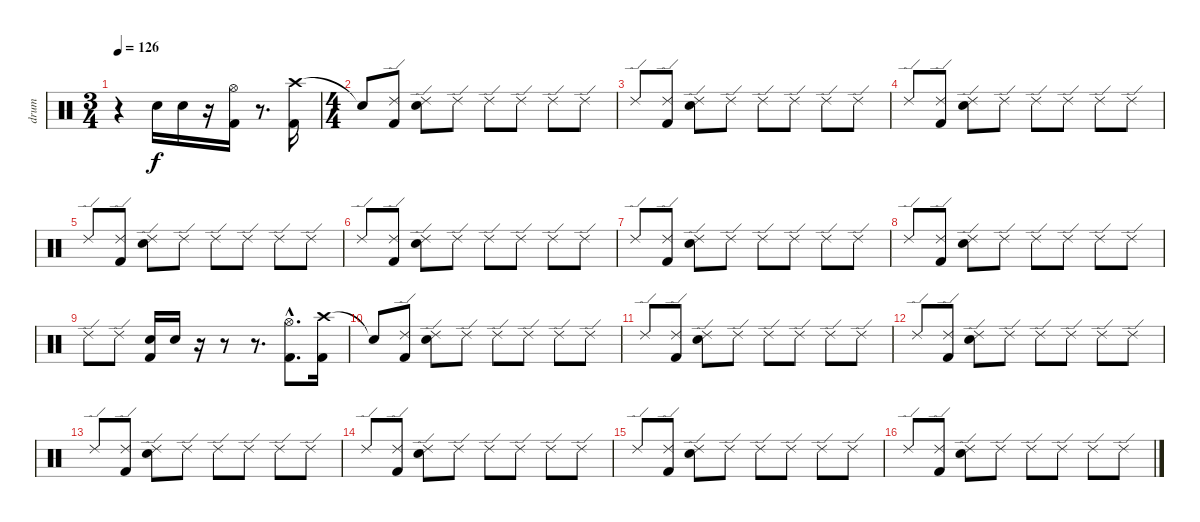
\track ("drum" "drum") {instrument percussion}
\staff {score}
\articulation defaults
\ts (3 4)
\tempo 126
\clef neutral
\ks c
r.4{dy f} "Electric Snare (hit)".16 "Electric Snare (hit)".16 r.16 ("Hi-Hat (open)" "Kick (hit) 2").16 r.8{d} ("Crash high (hit)" "Kick (hit) 2").16 |
\ts (4 4)
"Snare (hit)"{t}.8 ("Ride (edge) 2" "Kick (hit) 2").8 ("Ride (edge) 2" "Electric Snare (hit)").8 "Ride (edge) 2".8 "Ride (edge) 2".8 "Ride (edge) 2".8 "Ride (edge) 2".8 "Ride (edge) 2".8 |
"Ride (edge) 2".8 ("Ride (edge) 2" "Kick (hit) 2").8 ("Ride (edge) 2" "Electric Snare (hit)").8 "Ride (edge) 2".8 "Ride (edge) 2".8 "Ride (edge) 2".8 "Ride (edge) 2".8 "Ride (edge) 2".8 |
"Ride (edge) 2".8 ("Ride (edge) 2" "Kick (hit) 2").8 ("Ride (edge) 2" "Electric Snare (hit)").8 "Ride (edge) 2".8 "Ride (edge) 2".8 "Ride (edge) 2".8 "Ride (edge) 2".8 "Ride (edge) 2".8 |
"Ride (edge) 2".8 ("Ride (edge) 2" "Kick (hit) 2").8 ("Ride (edge) 2" "Electric Snare (hit)").8 "Ride (edge) 2".8 "Ride (edge) 2".8 "Ride (edge) 2".8 "Ride (edge) 2".8 "Ride (edge) 2".8 |
"Ride (edge) 2".8 ("Ride (edge) 2" "Kick (hit) 2").8 ("Ride (edge) 2" "Electric Snare (hit)").8 "Ride (edge) 2".8 "Ride (edge) 2".8 "Ride (edge) 2".8 "Ride (edge) 2".8 "Ride (edge) 2".8 |
"Ride (edge) 2".8 ("Ride (edge) 2" "Kick (hit) 2").8 ("Ride (edge) 2" "Electric Snare (hit)").8 "Ride (edge) 2".8 "Ride (edge) 2".8 "Ride (edge) 2".8 "Ride (edge) 2".8 "Ride (edge) 2".8 |
"Ride (edge) 2".8 ("Ride (edge) 2" "Kick (hit) 2").8 ("Ride (edge) 2" "Electric Snare (hit)").8 "Ride (edge) 2".8 "Ride (edge) 2".8 "Ride (edge) 2".8 "Ride (edge) 2".8 "Ride (edge) 2".8 |
"Ride (edge) 2".8 "Ride (edge) 2".8 ("Electric Snare (hit)" "Kick (hit) 2").16 "Electric Snare (hit)".16 r.16 r.8 r.8{d} ("Hi-Hat (open)"{hac} "Kick (hit) 2"{hac}).8{d} ("Crash high (hit)" "Kick (hit) 2").16 |
"Snare (hit)"{t}.8 ("Ride (edge) 2" "Kick (hit) 2").8 ("Ride (edge) 2" "Electric Snare (hit)").8 "Ride (edge) 2".8 "Ride (edge) 2".8 "Ride (edge) 2".8 "Ride (edge) 2".8 "Ride (edge) 2".8 |
"Ride (edge) 2".8 ("Ride (edge) 2" "Kick (hit) 2").8 ("Ride (edge) 2" "Electric Snare (hit)").8 "Ride (edge) 2".8 "Ride (edge) 2".8 "Ride (edge) 2".8 "Ride (edge) 2".8 "Ride (edge) 2".8 |
"Ride (edge) 2".8 ("Ride (edge) 2" "Kick (hit) 2").8 ("Ride (edge) 2" "Electric Snare (hit)").8 "Ride (edge) 2".8 "Ride (edge) 2".8 "Ride (edge) 2".8 "Ride (edge) 2".8 "Ride (edge) 2".8 |
"Ride (edge) 2".8 ("Ride (edge) 2" "Kick (hit) 2").8 ("Ride (edge) 2" "Electric Snare (hit)").8 "Ride (edge) 2".8 "Ride (edge) 2".8 "Ride (edge) 2".8 "Ride (edge) 2".8 "Ride (edge) 2".8 |
"Ride (edge) 2".8 ("Ride (edge) 2" "Kick (hit) 2").8 ("Ride (edge) 2" "Electric Snare (hit)").8 "Ride (edge) 2".8 "Ride (edge) 2".8 "Ride (edge) 2".8 "Ride (edge) 2".8 "Ride (edge) 2".8 |
"Ride (edge) 2".8 ("Ride (edge) 2" "Kick (hit) 2").8 ("Ride (edge) 2" "Electric Snare (hit)").8 "Ride (edge) 2".8 "Ride (edge) 2".8 "Ride (edge) 2".8 "Ride (edge) 2".8 "Ride (edge) 2".8 |
"Ride (edge) 2".8 ("Ride (edge) 2" "Kick (hit) 2").8 ("Ride (edge) 2" "Electric Snare (hit)").8 "Ride (edge) 2".8 "Ride (edge) 2".8 "Ride (edge) 2".8 "Ride (edge) 2".8 "Ride (edge) 2".8
